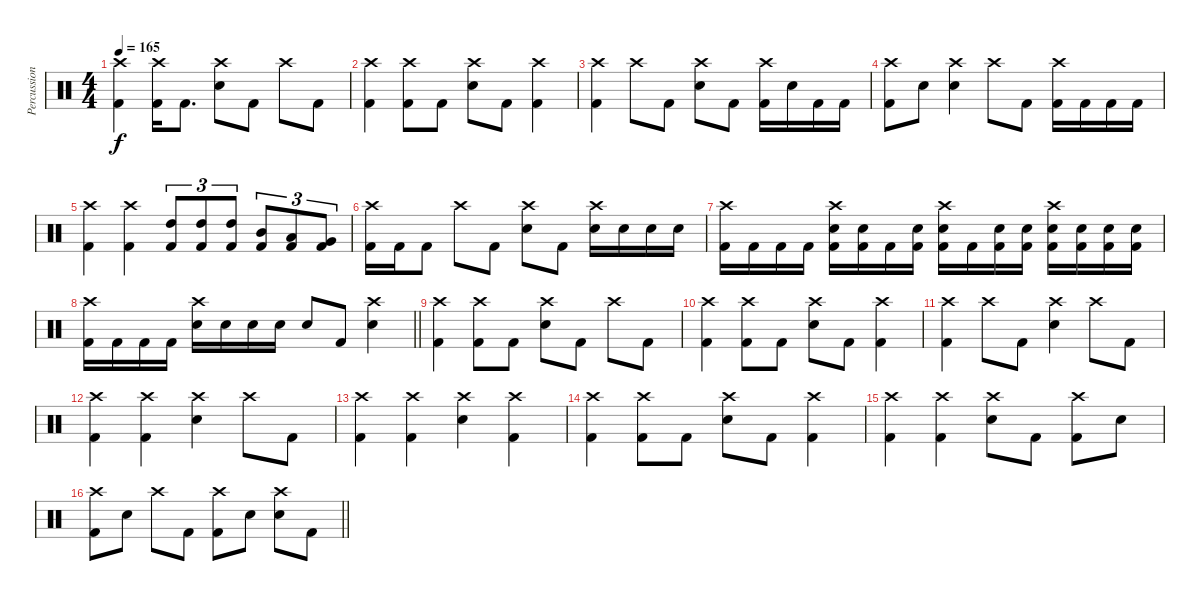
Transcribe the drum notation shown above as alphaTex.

\track ("Percussion" "Percussion") {instrument percussion}
\staff {score}
\articulation defaults
\ts (4 4)
\tempo 165
\clef neutral
\ks c
("Crash high (hit)" "Kick (hit) 2").4{dy f} ("Crash high (hit)" "Kick (hit) 2").16 "Kick (hit) 2".8{d} ("Crash high (hit)" "Electric Snare (hit)").8 "Kick (hit) 2".8 "Crash high (hit)".8 "Kick (hit) 2".8 |
("Crash high (hit)" "Kick (hit) 2").4 ("Crash high (hit)" "Kick (hit) 2").8 "Kick (hit) 2".8 ("Crash high (hit)" "Electric Snare (hit)").8 "Kick (hit) 2".8 ("Crash high (hit)" "Kick (hit) 2").4 |
("Crash high (hit)" "Kick (hit) 2").4 "Crash high (hit)".8 "Kick (hit) 2".8 ("Crash high (hit)" "Electric Snare (hit)").8 "Kick (hit) 2".8 ("Crash high (hit)" "Kick (hit) 2").16 "Electric Snare (hit)".16 "Kick (hit) 2".16 "Kick (hit) 2".16 |
("Crash high (hit)" "Kick (hit) 2").8 "Electric Snare (hit)".8 ("Crash high (hit)" "Electric Snare (hit)").4 "Crash high (hit)".8 "Kick (hit) 2".8 ("Crash high (hit)" "Kick (hit) 2").16 "Kick (hit) 2".16 "Kick (hit) 2".16 "Kick (hit) 2".16 |
("Crash high (hit)" "Kick (hit) 2").4 ("Crash high (hit)" "Kick (hit) 2").4 ("High Tom (hit)" "Kick (hit) 2").8{tu (3 2)} ("High Tom (hit)" "Kick (hit) 2").8{tu (3 2)} ("High Tom (hit)" "Kick (hit) 2").8{tu (3 2)} ("Mid Tom (hit)" "Kick (hit) 2").8{tu (3 2)} ("Low Tom (hit)" "Kick (hit) 2").8{tu (3 2)} ("Very Low Tom (hit)" "Kick (hit) 2").8{tu (3 2)} |
("Crash high (hit)" "Kick (hit) 2").16 "Kick (hit) 2".16 "Kick (hit) 2".8 "Crash high (hit)".8 "Kick (hit) 2".8 ("Crash high (hit)" "Electric Snare (hit)").8 "Kick (hit) 2".8 ("Crash high (hit)" "Electric Snare (hit)").16 "Electric Snare (hit)".16 "Electric Snare (hit)".16 "Electric Snare (hit)".16 |
("Crash high (hit)" "Kick (hit) 2").16 "Kick (hit) 2".16 "Kick (hit) 2".16 "Kick (hit) 2".16 ("Crash high (hit)" "Electric Snare (hit)" "Kick (hit) 2").16 ("Electric Snare (hit)" "Kick (hit) 2").16 "Kick (hit) 2".16 ("Electric Snare (hit)" "Kick (hit) 2").16 ("Crash high (hit)" "Electric Snare (hit)" "Kick (hit) 2").16 "Kick (hit) 2".16 ("Electric Snare (hit)" "Kick (hit) 2").16 ("Electric Snare (hit)" "Kick (hit) 2").16 ("Crash high (hit)" "Electric Snare (hit)" "Kick (hit) 2").16 ("Electric Snare (hit)" "Kick (hit) 2").16 ("Electric Snare (hit)" "Kick (hit) 2").16 ("Electric Snare (hit)" "Kick (hit) 2").16 |
\barLineRight lightlight
("Crash high (hit)" "Kick (hit) 2").16 "Kick (hit) 2".16 "Kick (hit) 2".16 "Kick (hit) 2".16 ("Crash high (hit)" "Electric Snare (hit)").16 "Electric Snare (hit)".16 "Electric Snare (hit)".16 "Electric Snare (hit)".16 "Electric Snare (hit)".8 "Kick (hit) 2".8 ("Crash high (hit)" "Electric Snare (hit)").4 |
("Crash high (hit)" "Kick (hit) 2").4 ("Crash high (hit)" "Kick (hit) 2").8 "Kick (hit) 2".8 ("Crash high (hit)" "Electric Snare (hit)").8 "Kick (hit) 2".8 "Crash high (hit)".8 "Kick (hit) 2".8 |
("Crash high (hit)" "Kick (hit) 2").4 ("Crash high (hit)" "Kick (hit) 2").8 "Kick (hit) 2".8 ("Crash high (hit)" "Electric Snare (hit)").8 "Kick (hit) 2".8 ("Crash high (hit)" "Kick (hit) 2").4 |
("Crash high (hit)" "Kick (hit) 2").4 "Crash high (hit)".8 "Kick (hit) 2".8 ("Crash high (hit)" "Electric Snare (hit)").4 "Crash high (hit)".8 "Kick (hit) 2".8 |
("Crash high (hit)" "Kick (hit) 2").4 ("Crash high (hit)" "Kick (hit) 2").4 ("Crash high (hit)" "Electric Snare (hit)").4 "Crash high (hit)".8 "Kick (hit) 2".8 |
("Crash high (hit)" "Kick (hit) 2").4 ("Crash high (hit)" "Kick (hit) 2").4 ("Crash high (hit)" "Electric Snare (hit)").4 ("Crash high (hit)" "Kick (hit) 2").4 |
("Crash high (hit)" "Kick (hit) 2").4 ("Crash high (hit)" "Kick (hit) 2").8 "Kick (hit) 2".8 ("Crash high (hit)" "Electric Snare (hit)").8 "Kick (hit) 2".8 ("Crash high (hit)" "Kick (hit) 2").4 |
("Crash high (hit)" "Kick (hit) 2").4 ("Crash high (hit)" "Kick (hit) 2").4 ("Crash high (hit)" "Electric Snare (hit)").8 "Kick (hit) 2".8 ("Crash high (hit)" "Kick (hit) 2").8 "Electric Snare (hit)".8 |
\barLineRight lightlight
("Crash high (hit)" "Kick (hit) 2").8 "Electric Snare (hit)".8 "Crash high (hit)".8 "Kick (hit) 2".8 ("Crash high (hit)" "Kick (hit) 2").8 "Electric Snare (hit)".8 ("Crash high (hit)" "Electric Snare (hit)").8 "Kick (hit) 2".8
